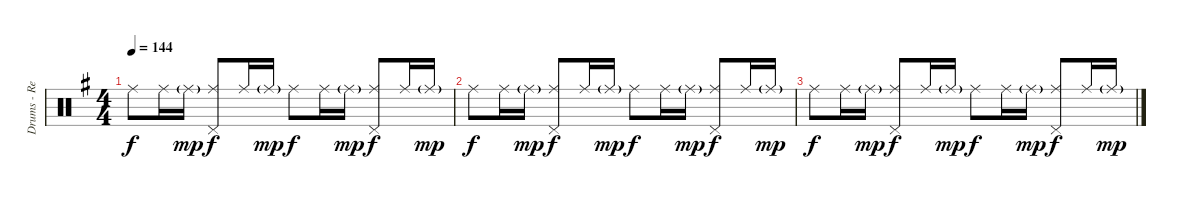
\track ("Drums - Reni" "Drums - Re") {instrument percussion}
\staff {score}
\articulation defaults
\ts (4 4)
\tempo 144
\clef neutral
\ks g "Ride (middle)".8{dy f} "Ride (middle)".16 "Ride (middle)"{g}.16{dy mp}
("Ride (middle)" "Pedal Hi-Hat (hit)").8{dy f} "Ride (middle)".16 "Ride (middle)"{g}.16{dy mp} "Ride (middle)".8{dy f} "Ride (middle)".16 "Ride (middle)"{g}.16{dy mp} ("Ride (middle)" "Pedal Hi-Hat (hit)").8{dy f} "Ride (middle)".16 "Ride (middle)"{g}.16{dy mp} |
"Ride (middle)".8{dy f} "Ride (middle)".16 "Ride (middle)"{g}.16{dy mp} ("Ride (middle)" "Pedal Hi-Hat (hit)").8{dy f} "Ride (middle)".16 "Ride (middle)"{g}.16{dy mp} "Ride (middle)".8{dy f} "Ride (middle)".16 "Ride (middle)"{g}.16{dy mp} ("Ride (middle)" "Pedal Hi-Hat (hit)").8{dy f} "Ride (middle)".16 "Ride (middle)"{g}.16{dy mp} |
"Ride (middle)".8{dy f} "Ride (middle)".16 "Ride (middle)"{g}.16{dy mp} ("Ride (middle)" "Pedal Hi-Hat (hit)").8{dy f} "Ride (middle)".16 "Ride (middle)"{g}.16{dy mp} "Ride (middle)".8{dy f} "Ride (middle)".16 "Ride (middle)"{g}.16{dy mp} ("Ride (middle)" "Pedal Hi-Hat (hit)").8{dy f} "Ride (middle)".16 "Ride (middle)"{g}.16{dy mp}
